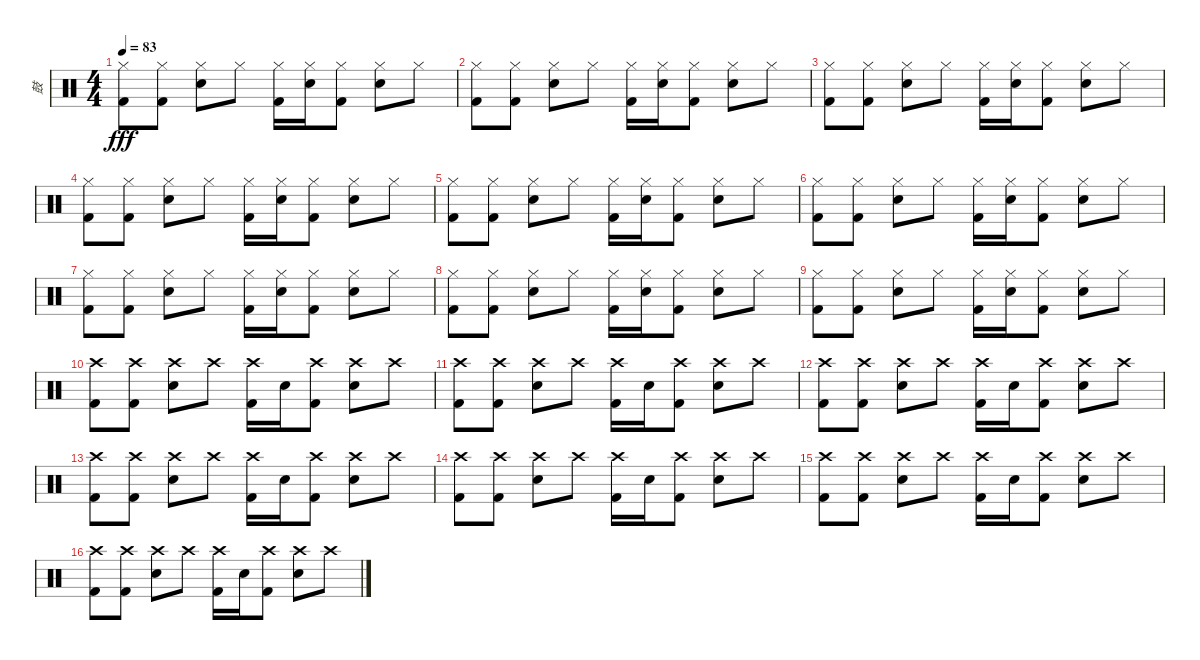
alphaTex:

\track ("鼓" "鼓") {instrument percussion}
\staff {score}
\articulation defaults
\ts (4 4)
\tempo 83
\clef neutral
\ks c
("Hi-Hat (closed)" "Kick (hit) 2").8{dy fff} ("Hi-Hat (closed)" "Kick (hit) 2").8 ("Hi-Hat (closed)" "Electric Snare (hit)").8 "Hi-Hat (closed)".8 ("Hi-Hat (closed)" "Kick (hit) 2").16 ("Hi-Hat (closed)" "Electric Snare (hit)").16 ("Hi-Hat (closed)" "Kick (hit) 2").8 ("Hi-Hat (closed)" "Electric Snare (hit)").8 "Hi-Hat (closed)".8 |
("Hi-Hat (closed)" "Kick (hit) 2").8 ("Hi-Hat (closed)" "Kick (hit) 2").8 ("Hi-Hat (closed)" "Electric Snare (hit)").8 "Hi-Hat (closed)".8 ("Hi-Hat (closed)" "Kick (hit) 2").16 ("Hi-Hat (closed)" "Electric Snare (hit)").16 ("Hi-Hat (closed)" "Kick (hit) 2").8 ("Hi-Hat (closed)" "Electric Snare (hit)").8 "Hi-Hat (closed)".8 |
("Hi-Hat (closed)" "Kick (hit) 2").8 ("Hi-Hat (closed)" "Kick (hit) 2").8 ("Hi-Hat (closed)" "Electric Snare (hit)").8 "Hi-Hat (closed)".8 ("Hi-Hat (closed)" "Kick (hit) 2").16 ("Hi-Hat (closed)" "Electric Snare (hit)").16 ("Hi-Hat (closed)" "Kick (hit) 2").8 ("Hi-Hat (closed)" "Electric Snare (hit)").8 "Hi-Hat (closed)".8 |
("Hi-Hat (closed)" "Kick (hit) 2").8 ("Hi-Hat (closed)" "Kick (hit) 2").8 ("Hi-Hat (closed)" "Electric Snare (hit)").8 "Hi-Hat (closed)".8 ("Hi-Hat (closed)" "Kick (hit) 2").16 ("Hi-Hat (closed)" "Electric Snare (hit)").16 ("Hi-Hat (closed)" "Kick (hit) 2").8 ("Hi-Hat (closed)" "Electric Snare (hit)").8 "Hi-Hat (closed)".8 |
("Hi-Hat (closed)" "Kick (hit) 2").8 ("Hi-Hat (closed)" "Kick (hit) 2").8 ("Hi-Hat (closed)" "Electric Snare (hit)").8 "Hi-Hat (closed)".8 ("Hi-Hat (closed)" "Kick (hit) 2").16 ("Hi-Hat (closed)" "Electric Snare (hit)").16 ("Hi-Hat (closed)" "Kick (hit) 2").8 ("Hi-Hat (closed)" "Electric Snare (hit)").8 "Hi-Hat (closed)".8 |
("Hi-Hat (closed)" "Kick (hit) 2").8 ("Hi-Hat (closed)" "Kick (hit) 2").8 ("Hi-Hat (closed)" "Electric Snare (hit)").8 "Hi-Hat (closed)".8 ("Hi-Hat (closed)" "Kick (hit) 2").16 ("Hi-Hat (closed)" "Electric Snare (hit)").16 ("Hi-Hat (closed)" "Kick (hit) 2").8 ("Hi-Hat (closed)" "Electric Snare (hit)").8 "Hi-Hat (closed)".8 |
("Hi-Hat (closed)" "Kick (hit) 2").8 ("Hi-Hat (closed)" "Kick (hit) 2").8 ("Hi-Hat (closed)" "Electric Snare (hit)").8 "Hi-Hat (closed)".8 ("Hi-Hat (closed)" "Kick (hit) 2").16 ("Hi-Hat (closed)" "Electric Snare (hit)").16 ("Hi-Hat (closed)" "Kick (hit) 2").8 ("Hi-Hat (closed)" "Electric Snare (hit)").8 "Hi-Hat (closed)".8 |
("Hi-Hat (closed)" "Kick (hit) 2").8 ("Hi-Hat (closed)" "Kick (hit) 2").8 ("Hi-Hat (closed)" "Electric Snare (hit)").8 "Hi-Hat (closed)".8 ("Hi-Hat (closed)" "Kick (hit) 2").16 ("Hi-Hat (closed)" "Electric Snare (hit)").16 ("Hi-Hat (closed)" "Kick (hit) 2").8 ("Hi-Hat (closed)" "Electric Snare (hit)").8 "Hi-Hat (closed)".8 |
("Hi-Hat (closed)" "Kick (hit) 2").8 ("Hi-Hat (closed)" "Kick (hit) 2").8 ("Hi-Hat (closed)" "Electric Snare (hit)").8 "Hi-Hat (closed)".8 ("Hi-Hat (closed)" "Kick (hit) 2").16 ("Hi-Hat (closed)" "Electric Snare (hit)").16 ("Hi-Hat (closed)" "Kick (hit) 2").8 ("Hi-Hat (closed)" "Electric Snare (hit)").8 "Hi-Hat (closed)".8 |
("Crash high (hit)" "Kick (hit) 2").8 ("Crash high (hit)" "Kick (hit) 2").8 ("Crash high (hit)" "Electric Snare (hit)").8 "Crash high (hit)".8 ("Crash high (hit)" "Kick (hit) 2").16 "Electric Snare (hit)".16 ("Crash high (hit)" "Kick (hit) 2").8 ("Crash high (hit)" "Electric Snare (hit)").8 "Crash high (hit)".8 |
("Crash high (hit)" "Kick (hit) 2").8 ("Crash high (hit)" "Kick (hit) 2").8 ("Crash high (hit)" "Electric Snare (hit)").8 "Crash high (hit)".8 ("Crash high (hit)" "Kick (hit) 2").16 "Electric Snare (hit)".16 ("Crash high (hit)" "Kick (hit) 2").8 ("Crash high (hit)" "Electric Snare (hit)").8 "Crash high (hit)".8 |
("Crash high (hit)" "Kick (hit) 2").8 ("Crash high (hit)" "Kick (hit) 2").8 ("Crash high (hit)" "Electric Snare (hit)").8 "Crash high (hit)".8 ("Crash high (hit)" "Kick (hit) 2").16 "Electric Snare (hit)".16 ("Crash high (hit)" "Kick (hit) 2").8 ("Crash high (hit)" "Electric Snare (hit)").8 "Crash high (hit)".8 |
("Crash high (hit)" "Kick (hit) 2").8 ("Crash high (hit)" "Kick (hit) 2").8 ("Crash high (hit)" "Electric Snare (hit)").8 "Crash high (hit)".8 ("Crash high (hit)" "Kick (hit) 2").16 "Electric Snare (hit)".16 ("Crash high (hit)" "Kick (hit) 2").8 ("Crash high (hit)" "Electric Snare (hit)").8 "Crash high (hit)".8 |
("Crash high (hit)" "Kick (hit) 2").8 ("Crash high (hit)" "Kick (hit) 2").8 ("Crash high (hit)" "Electric Snare (hit)").8 "Crash high (hit)".8 ("Crash high (hit)" "Kick (hit) 2").16 "Electric Snare (hit)".16 ("Crash high (hit)" "Kick (hit) 2").8 ("Crash high (hit)" "Electric Snare (hit)").8 "Crash high (hit)".8 |
("Crash high (hit)" "Kick (hit) 2").8 ("Crash high (hit)" "Kick (hit) 2").8 ("Crash high (hit)" "Electric Snare (hit)").8 "Crash high (hit)".8 ("Crash high (hit)" "Kick (hit) 2").16 "Electric Snare (hit)".16 ("Crash high (hit)" "Kick (hit) 2").8 ("Crash high (hit)" "Electric Snare (hit)").8 "Crash high (hit)".8 |
("Crash high (hit)" "Kick (hit) 2").8 ("Crash high (hit)" "Kick (hit) 2").8 ("Crash high (hit)" "Electric Snare (hit)").8 "Crash high (hit)".8 ("Crash high (hit)" "Kick (hit) 2").16 "Electric Snare (hit)".16 ("Crash high (hit)" "Kick (hit) 2").8 ("Crash high (hit)" "Electric Snare (hit)").8 "Crash high (hit)".8
